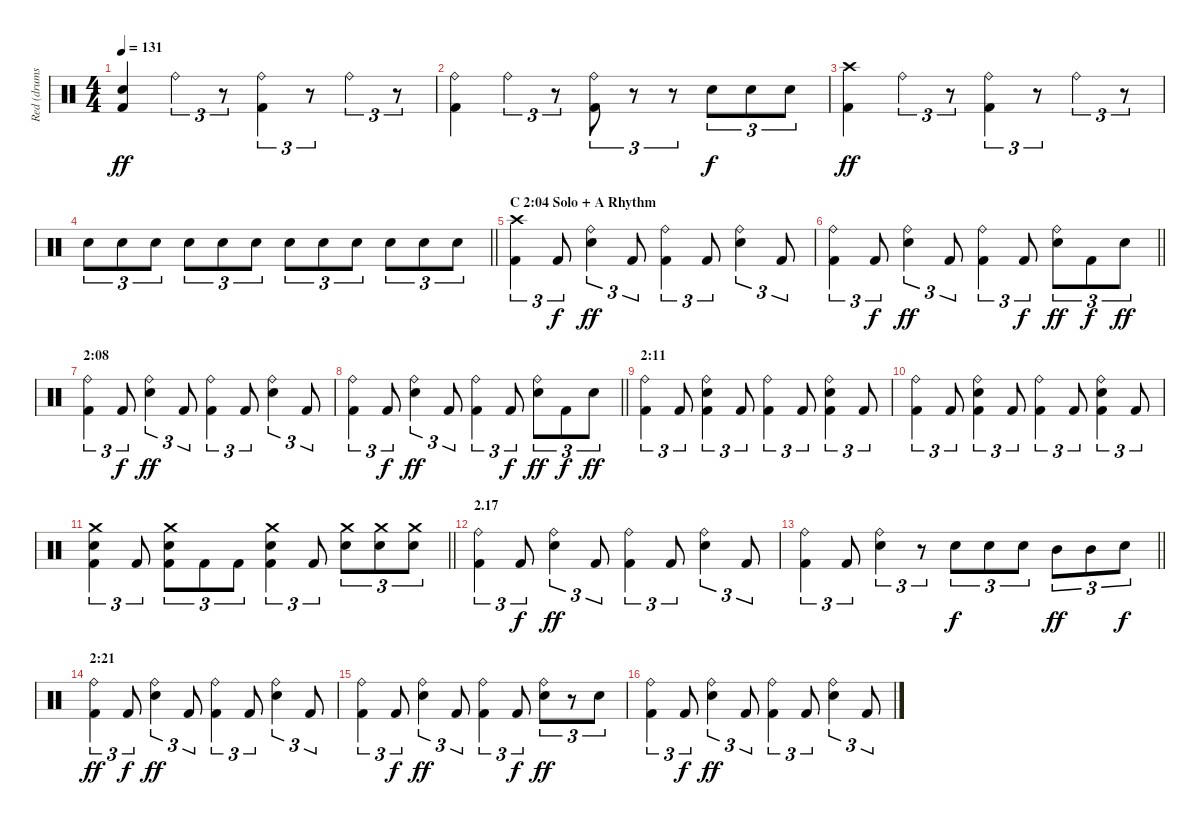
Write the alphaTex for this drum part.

\track ("Red (drums)" "Red (drums") {instrument percussion}
\staff {score}
\articulation defaults
\ts (4 4)
\tempo 131
\clef neutral
\ks c
("Electric Snare (hit)" "Kick (hit) 2").4{dy ff} "Ride (bell)".4{tu (3 2)} r.8{tu (3 2)} ("Ride (bell)" "Kick (hit) 2").4{tu (3 2)} r.8{tu (3 2)} "Ride (bell)".4{tu (3 2)} r.8{tu (3 2)} |
("Ride (bell)" "Kick (hit) 2").4 "Ride (bell)".4{tu (3 2)} r.8{tu (3 2)} ("Ride (bell)" "Kick (hit) 2").8{tu (3 2)} r.8{tu (3 2)} r.8{tu (3 2)} "Electric Snare (hit)".8{tu (3 2) dy f} "Electric Snare (hit)".8{tu (3 2)} "Electric Snare (hit)".8{tu (3 2)} |
("Crash high (hit)" "Kick (hit) 2").4{dy ff} "Ride (bell)".4{tu (3 2)} r.8{tu (3 2)} ("Ride (bell)" "Kick (hit) 2").4{tu (3 2)} r.8{tu (3 2)} "Ride (bell)".4{tu (3 2)} r.8{tu (3 2)} |
\barLineRight lightlight "Electric Snare (hit)".8{tu (3 2)} "Electric Snare (hit)".8{tu (3 2)} "Electric Snare (hit)".8{tu (3 2)} "Electric Snare (hit)".8{tu (3 2)} "Electric Snare (hit)".8{tu (3 2)} "Electric Snare (hit)".8{tu (3 2)} "Electric Snare (hit)".8{tu (3 2)} "Electric Snare (hit)".8{tu (3 2)} "Electric Snare (hit)".8{tu (3 2)} "Electric Snare (hit)".8{tu (3 2)} "Electric Snare (hit)".8{tu (3 2)} "Electric Snare (hit)".8{tu (3 2)}
|
\section ("" "C 2:04 Solo + A Rhythm")
("Crash high (hit)" "Kick (hit) 2").4{tu (3 2)} "Kick (hit) 2".8{tu (3 2) dy f} ("Ride (bell)" "Electric Snare (hit)").4{tu (3 2) dy ff} "Kick (hit) 2".8{tu (3 2)} ("Ride (bell)" "Kick (hit) 2").4{tu (3 2)} "Kick (hit) 2".8{tu (3 2)} ("Ride (bell)" "Electric Snare (hit)").4{tu (3 2)} "Kick (hit) 2".8{tu (3 2)} |
\barLineRight lightlight
("Ride (bell)" "Kick (hit) 2").4{tu (3 2)} "Kick (hit) 2".8{tu (3 2) dy f} ("Ride (bell)" "Electric Snare (hit)").4{tu (3 2) dy ff} "Kick (hit) 2".8{tu (3 2)} ("Ride (bell)" "Kick (hit) 2").4{tu (3 2)} "Kick (hit) 2".8{tu (3 2) dy f} ("Ride (bell)" "Electric Snare (hit)").8{tu (3 2) dy ff} "Kick (hit) 2".8{tu (3 2) dy f} "Electric Snare (hit)".8{tu (3 2) dy ff} |
\section ("" "2:08")
("Ride (bell)" "Kick (hit) 2").4{tu (3 2)} "Kick (hit) 2".8{tu (3 2) dy f} ("Ride (bell)" "Electric Snare (hit)").4{tu (3 2) dy ff} "Kick (hit) 2".8{tu (3 2)} ("Ride (bell)" "Kick (hit) 2").4{tu (3 2)} "Kick (hit) 2".8{tu (3 2)} ("Ride (bell)" "Electric Snare (hit)").4{tu (3 2)} "Kick (hit) 2".8{tu (3 2)} |
\barLineRight lightlight
("Ride (bell)" "Kick (hit) 2").4{tu (3 2)} "Kick (hit) 2".8{tu (3 2) dy f} ("Ride (bell)" "Electric Snare (hit)").4{tu (3 2) dy ff} "Kick (hit) 2".8{tu (3 2)} ("Ride (bell)" "Kick (hit) 2").4{tu (3 2)} "Kick (hit) 2".8{tu (3 2) dy f} ("Ride (bell)" "Electric Snare (hit)").8{tu (3 2) dy ff} "Kick (hit) 2".8{tu (3 2) dy f} "Electric Snare (hit)".8{tu (3 2) dy ff} |
\section ("" "2:11")
("Ride (bell)" "Kick (hit) 2").4{tu (3 2)} "Kick (hit) 2".8{tu (3 2)} ("Ride (bell)" "Electric Snare (hit)" "Kick (hit) 2").4{tu (3 2)} "Kick (hit) 2".8{tu (3 2)} ("Ride (bell)" "Kick (hit) 2").4{tu (3 2)} "Kick (hit) 2".8{tu (3 2)} ("Ride (bell)" "Electric Snare (hit)" "Kick (hit) 2").4{tu (3 2)} "Kick (hit) 2".8{tu (3 2)} |
("Ride (bell)" "Kick (hit) 2").4{tu (3 2)} "Kick (hit) 2".8{tu (3 2)} ("Ride (bell)" "Electric Snare (hit)" "Kick (hit) 2").4{tu (3 2)} "Kick (hit) 2".8{tu (3 2)} ("Ride (bell)" "Kick (hit) 2").4{tu (3 2)} "Kick (hit) 2".8{tu (3 2)} ("Ride (bell)" "Electric Snare (hit)" "Kick (hit) 2").4{tu (3 2)} "Kick (hit) 2".8{tu (3 2)} |
\barLineRight lightlight
("Crash medium (hit)" "Electric Snare (hit)" "Kick (hit) 2").4{tu (3 2)} "Kick (hit) 2".8{tu (3 2)} ("Crash medium (hit)" "Electric Snare (hit)" "Kick (hit) 2").8{tu (3 2)} "Kick (hit) 2".8{tu (3 2)} "Kick (hit) 2".8{tu (3 2)} ("Crash medium (hit)" "Electric Snare (hit)" "Kick (hit) 2").4{tu (3 2)} "Kick (hit) 2".8{tu (3 2)} ("Crash medium (hit)" "Electric Snare (hit)").8{tu (3 2)} ("Crash medium (hit)" "Electric Snare (hit)").8{tu (3 2)} ("Crash medium (hit)" "Electric Snare (hit)").8{tu (3 2)} |
\section ("" "2.17")
("Ride (bell)" "Kick (hit) 2").4{tu (3 2)} "Kick (hit) 2".8{tu (3 2) dy f} ("Ride (bell)" "Electric Snare (hit)").4{tu (3 2) dy ff} "Kick (hit) 2".8{tu (3 2)} ("Ride (bell)" "Kick (hit) 2").4{tu (3 2)} "Kick (hit) 2".8{tu (3 2)} ("Ride (bell)" "Electric Snare (hit)").4{tu (3 2)} "Kick (hit) 2".8{tu (3 2)} |
\barLineRight lightlight
("Ride (bell)" "Kick (hit) 2").4{tu (3 2)} "Kick (hit) 2".8{tu (3 2)} ("Ride (bell)" "Electric Snare (hit)").4{tu (3 2)} r.8{tu (3 2)} "Electric Snare (hit)".8{tu (3 2) dy f} "Electric Snare (hit)".8{tu (3 2)} "Electric Snare (hit)".8{tu (3 2)} "Mid Tom (hit)".8{tu (3 2) dy ff} "Mid Tom (hit)".8{tu (3 2)} "Electric Snare (hit)".8{tu (3 2) dy f} |
\section ("" "2:21")
("Ride (bell)" "Kick (hit) 2").4{tu (3 2) dy ff} "Kick (hit) 2".8{tu (3 2) dy f} ("Ride (bell)" "Electric Snare (hit)").4{tu (3 2) dy ff} "Kick (hit) 2".8{tu (3 2)} ("Ride (bell)" "Kick (hit) 2").4{tu (3 2)} "Kick (hit) 2".8{tu (3 2)} ("Ride (bell)" "Electric Snare (hit)").4{tu (3 2)} "Kick (hit) 2".8{tu (3 2)} |
("Ride (bell)" "Kick (hit) 2").4{tu (3 2)} "Kick (hit) 2".8{tu (3 2) dy f} ("Ride (bell)" "Electric Snare (hit)").4{tu (3 2) dy ff} "Kick (hit) 2".8{tu (3 2)} ("Ride (bell)" "Kick (hit) 2").4{tu (3 2)} "Kick (hit) 2".8{tu (3 2) dy f} ("Ride (bell)" "Electric Snare (hit)").8{tu (3 2) dy ff} r.8{tu (3 2)} "Electric Snare (hit)".8{tu (3 2)} |
("Ride (bell)" "Kick (hit) 2").4{tu (3 2)} "Kick (hit) 2".8{tu (3 2) dy f} ("Ride (bell)" "Electric Snare (hit)").4{tu (3 2) dy ff} "Kick (hit) 2".8{tu (3 2)} ("Ride (bell)" "Kick (hit) 2").4{tu (3 2)} "Kick (hit) 2".8{tu (3 2)} ("Ride (bell)" "Electric Snare (hit)").4{tu (3 2)} "Kick (hit) 2".8{tu (3 2)}
